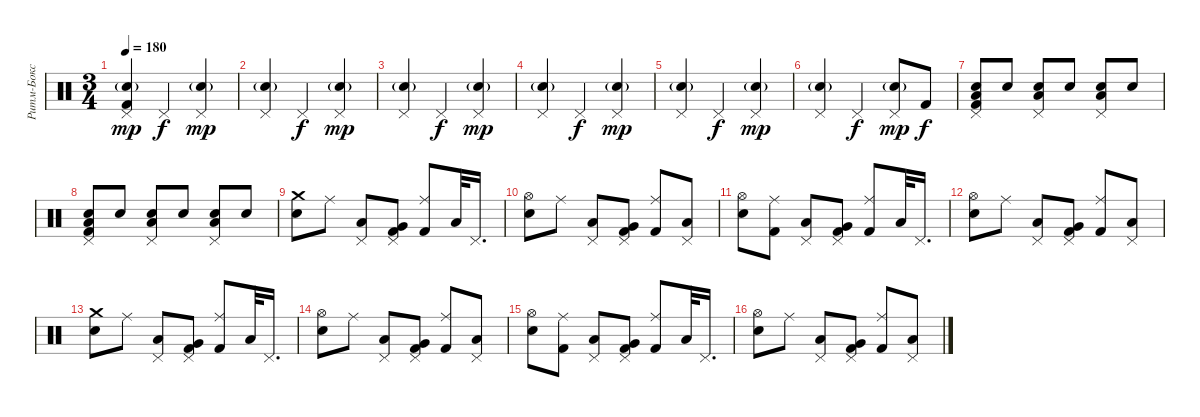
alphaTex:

\track ("Ритм-Бокс" "Ритм-Бокс") {instrument percussion}
\staff {score}
\articulation defaults
\ts (3 4)
\tempo 180
\clef neutral
\ks c
("Pedal Hi-Hat (hit)" "Electric Snare (hit)"{g} "Kick (hit) 2").4{dy mp} "Pedal Hi-Hat (hit)".4{dy f} ("Pedal Hi-Hat (hit)" "Electric Snare (hit)"{g}).4{dy mp} |
("Pedal Hi-Hat (hit)" "Electric Snare (hit)"{g}).4 "Pedal Hi-Hat (hit)".4{dy f} ("Pedal Hi-Hat (hit)" "Electric Snare (hit)"{g}).4{dy mp} |
("Pedal Hi-Hat (hit)" "Electric Snare (hit)"{g}).4 "Pedal Hi-Hat (hit)".4{dy f} ("Pedal Hi-Hat (hit)" "Electric Snare (hit)"{g}).4{dy mp} |
("Pedal Hi-Hat (hit)" "Electric Snare (hit)"{g}).4 "Pedal Hi-Hat (hit)".4{dy f} ("Pedal Hi-Hat (hit)" "Electric Snare (hit)"{g}).4{dy mp} |
("Pedal Hi-Hat (hit)" "Electric Snare (hit)"{g}).4 "Pedal Hi-Hat (hit)".4{dy f} ("Pedal Hi-Hat (hit)" "Electric Snare (hit)"{g}).4{dy mp} |
("Pedal Hi-Hat (hit)" "Electric Snare (hit)"{g}).4 "Pedal Hi-Hat (hit)".4{dy f} ("Pedal Hi-Hat (hit)" "Electric Snare (hit)"{g}).8{dy mp} "Kick (hit) 2".8{dy f} |
("Pedal Hi-Hat (hit)" "Snare (hit) 2" "Low Floor Tom (hit)" "Kick (hit) 2").8 "Snare (hit) 2".8 ("Pedal Hi-Hat (hit)" "Snare (hit) 2" "Low Floor Tom (hit)").8 "Snare (hit) 2".8 ("Pedal Hi-Hat (hit)" "Snare (hit) 2" "Low Floor Tom (hit)").8 "Snare (hit) 2".8 |
("Pedal Hi-Hat (hit)" "Snare (hit) 2" "Low Floor Tom (hit)" "Kick (hit) 2").8 "Snare (hit) 2".8 ("Pedal Hi-Hat (hit)" "Snare (hit) 2" "Low Floor Tom (hit)").8 "Snare (hit) 2".8 ("Pedal Hi-Hat (hit)" "Snare (hit) 2" "Low Floor Tom (hit)").8 "Snare (hit) 2".8 |
("Crash medium (hit)" "Snare (hit) 2").8 "Ride (middle)".8 ("Pedal Hi-Hat (hit)" "Low Floor Tom (hit)").8 ("Pedal Hi-Hat (hit)" "Very Low Tom (hit)" "Kick (hit) 2").8 ("Ride (middle)" "Kick (hit) 2").8 "Low Floor Tom (hit)".32 "Pedal Hi-Hat (hit)".16{d} |
("Hi-Hat (open)" "Snare (hit) 2").8 "Ride (middle)".8 ("Pedal Hi-Hat (hit)" "Low Floor Tom (hit)").8 ("Pedal Hi-Hat (hit)" "Very Low Tom (hit)" "Kick (hit) 2").8 ("Ride (middle)" "Kick (hit) 2").8 ("Pedal Hi-Hat (hit)" "Low Floor Tom (hit)").8 |
("Hi-Hat (open)" "Snare (hit) 2").8 ("Ride (middle)" "Kick (hit) 2").8 ("Pedal Hi-Hat (hit)" "Low Floor Tom (hit)").8 ("Pedal Hi-Hat (hit)" "Very Low Tom (hit)" "Kick (hit) 2").8 ("Ride (middle)" "Kick (hit) 2").8 "Low Floor Tom (hit)".32 "Pedal Hi-Hat (hit)".16{d} |
("Hi-Hat (open)" "Snare (hit) 2").8 "Ride (middle)".8 ("Pedal Hi-Hat (hit)" "Low Floor Tom (hit)").8 ("Pedal Hi-Hat (hit)" "Very Low Tom (hit)" "Kick (hit) 2").8 ("Ride (middle)" "Kick (hit) 2").8 ("Pedal Hi-Hat (hit)" "Low Floor Tom (hit)").8 |
("Crash medium (hit)" "Snare (hit) 2").8 "Ride (middle)".8 ("Pedal Hi-Hat (hit)" "Low Floor Tom (hit)").8 ("Pedal Hi-Hat (hit)" "Very Low Tom (hit)" "Kick (hit) 2").8 ("Ride (middle)" "Kick (hit) 2").8 "Low Floor Tom (hit)".32 "Pedal Hi-Hat (hit)".16{d} |
("Hi-Hat (open)" "Snare (hit) 2").8 "Ride (middle)".8 ("Pedal Hi-Hat (hit)" "Low Floor Tom (hit)").8 ("Pedal Hi-Hat (hit)" "Very Low Tom (hit)" "Kick (hit) 2").8 ("Ride (middle)" "Kick (hit) 2").8 ("Pedal Hi-Hat (hit)" "Low Floor Tom (hit)").8 |
("Hi-Hat (open)" "Snare (hit) 2").8 ("Ride (middle)" "Kick (hit) 2").8 ("Pedal Hi-Hat (hit)" "Low Floor Tom (hit)").8 ("Pedal Hi-Hat (hit)" "Very Low Tom (hit)" "Kick (hit) 2").8 ("Ride (middle)" "Kick (hit) 2").8 "Low Floor Tom (hit)".32 "Pedal Hi-Hat (hit)".16{d} |
("Hi-Hat (open)" "Snare (hit) 2").8 "Ride (middle)".8 ("Pedal Hi-Hat (hit)" "Low Floor Tom (hit)").8 ("Pedal Hi-Hat (hit)" "Very Low Tom (hit)" "Kick (hit) 2").8 ("Ride (middle)" "Kick (hit) 2").8 ("Pedal Hi-Hat (hit)" "Low Floor Tom (hit)").8
